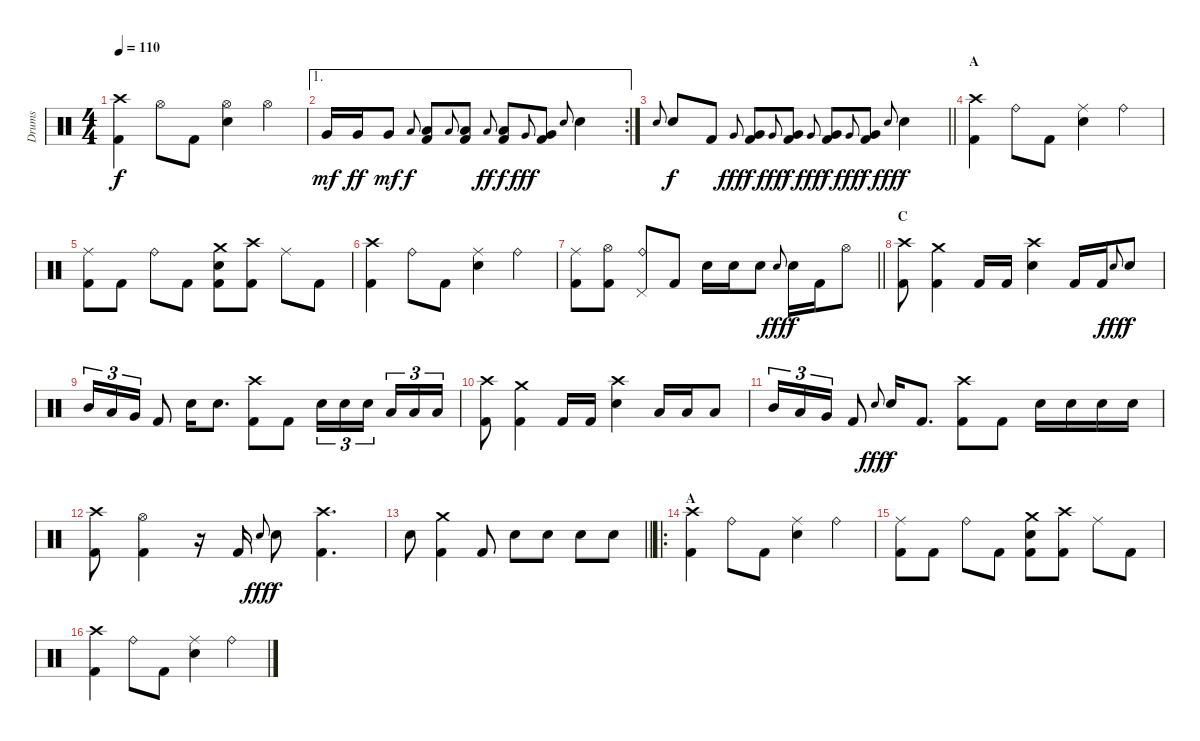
\track ("Drums" "Drums") {instrument percussion}
\staff {score}
\articulation defaults
\ts (4 4)
\tempo 110
\clef neutral
\ks c
("Kick (hit) 2" "Crash high (hit)").4{dy f} "Hi-Hat (open)".8 "Kick (hit) 2".8 ("Hi-Hat (open)" "Snare (hit) 2").4 "Hi-Hat (open)".4 |
\ae 1
\rc 2 "Very Low Tom (hit)".16{dy mf} "Very Low Tom (hit)".16{dy ff} "Very Low Tom (hit)".8{dy mf} "Low Tom (hit)".8{gr onbeat dy f}
("Kick (hit) 2" "Low Tom (hit)").8 "Low Tom (hit)".8{gr onbeat} ("Kick (hit) 2" "Low Tom (hit)").8 "Low Tom (hit)".8{gr onbeat dy ff} ("Kick (hit) 2" "Low Tom (hit)").8{dy f} "Very Low Tom (hit)".8{gr onbeat dy fff} ("Kick (hit) 2" "Very Low Tom (hit)").8 "Snare (hit) 2".8{gr onbeat} "Snare (hit) 2".4 |
\barLineRight lightlight "Snare (hit) 2".8{gr onbeat} "Snare (hit) 2".8{dy f} "Kick (hit) 2".8 "Very Low Tom (hit)".8{gr onbeat dy fff}
("Kick (hit) 2" "Very Low Tom (hit)").8{dy f} "Very Low Tom (hit)".8{gr onbeat dy fff} ("Very Low Tom (hit)" "Kick (hit) 2").8{dy f} "Very Low Tom (hit)".8{gr onbeat dy fff} ("Very Low Tom (hit)" "Kick (hit) 2").8{dy f} "Very Low Tom (hit)".8{gr onbeat dy fff} ("Very Low Tom (hit)" "Kick (hit) 2").8{dy f} "Snare (hit) 2".8{gr onbeat dy fff} "Snare (hit) 2".4{dy f} |
\section ("" "A")
("Kick (hit) 2" "Crash high (hit)").4 "Ride (bell)".8 "Kick (hit) 2".8 ("Ride (middle)" "Snare (hit) 2").4 "Ride (bell)".4 |
("Ride (middle)" "Kick (hit) 2").8 "Kick (hit) 2".8 "Ride (bell)".8 "Kick (hit) 2".8 ("Snare (hit) 2" "Crash medium (hit)" "Kick (hit) 2").8 ("Crash high (hit)" "Kick (hit) 2").8 "Ride (middle)".8 "Kick (hit) 2".8 |
("Kick (hit) 2" "Crash high (hit)").4 "Ride (bell)".8 "Kick (hit) 2".8 ("Ride (middle)" "Snare (hit) 2").4 "Ride (bell)".4 |
\barLineRight lightlight
("Ride (middle)" "Kick (hit) 2").8 ("Kick (hit) 2" "Hi-Hat (open)").8 ("Ride (bell)" "Pedal Hi-Hat (hit)").8 "Kick (hit) 2".8 "Snare (hit) 2".16 "Snare (hit) 2".16 "Snare (hit) 2".8 "Snare (hit) 2".8{gr onbeat dy fff} "Snare (hit) 2".16{dy f} "Kick (hit) 2".16 "Hi-Hat (open)".8 |
\section ("" "C")
("Kick (hit) 2" "Crash high (hit)").8 ("Crash medium (hit)" "Kick (hit) 2").4 "Kick (hit) 2".16 "Kick (hit) 2".16 ("Snare (hit) 2" "Crash high (hit)").4 "Kick (hit) 2".16 "Kick (hit) 2".16 "Snare (hit) 2".8{gr onbeat dy fff} "Snare (hit) 2".8{dy f} |
"Mid Tom (hit)".16{tu (3 2)} "Low Tom (hit)".16{tu (3 2)} "Very Low Tom (hit)".16{tu (3 2)} "Kick (hit) 2".8 "Snare (hit) 2".16 "Snare (hit) 2".8{d} ("Kick (hit) 2" "Crash high (hit)").8 "Kick (hit) 2".8 "Snare (hit) 2".16{tu (3 2)} "Snare (hit) 2".16{tu (3 2)} "Snare (hit) 2".16{tu (3 2) beam splitsecondary} "Low Tom (hit)".16{tu (3 2)} "Low Tom (hit)".16{tu (3 2)} "Low Tom (hit)".16{tu (3 2)} |
("Kick (hit) 2" "Crash high (hit)").8 ("Crash medium (hit)" "Kick (hit) 2").4 "Kick (hit) 2".16 "Kick (hit) 2".16 ("Snare (hit) 2" "Crash high (hit)").4 "Low Tom (hit)".16 "Low Tom (hit)".16 "Low Tom (hit)".8 |
"Mid Tom (hit)".16{tu (3 2)} "Low Tom (hit)".16{tu (3 2)} "Very Low Tom (hit)".16{tu (3 2)} "Kick (hit) 2".8 "Snare (hit) 2".8{gr onbeat dy fff} "Snare (hit) 2".16{dy f} "Kick (hit) 2".8{d} ("Kick (hit) 2" "Crash high (hit)").8 "Kick (hit) 2".8 "Snare (hit) 2".16 "Snare (hit) 2".16 "Snare (hit) 2".16 "Snare (hit) 2".16 |
("Kick (hit) 2" "Crash high (hit)").8 ("Hi-Hat (open)" "Kick (hit) 2").4 r.16 "Kick (hit) 2".16 "Snare (hit) 2".8{gr onbeat dy fff} "Snare (hit) 2".8{dy f} ("Kick (hit) 2" "Crash high (hit)").4{d} |
\barLineRight lightlight "Snare (hit) 2".8
("Crash medium (hit)" "Kick (hit) 2").4 "Kick (hit) 2".8 "Snare (hit) 2".8 "Snare (hit) 2".8 "Snare (hit) 2".8 "Snare (hit) 2".8 |
\ro
\section ("" "A")
("Kick (hit) 2" "Crash high (hit)").4 "Ride (bell)".8 "Kick (hit) 2".8 ("Ride (middle)" "Snare (hit) 2").4 "Ride (bell)".4 |
("Ride (middle)" "Kick (hit) 2").8 "Kick (hit) 2".8 "Ride (bell)".8 "Kick (hit) 2".8 ("Snare (hit) 2" "Crash medium (hit)" "Kick (hit) 2").8 ("Crash high (hit)" "Kick (hit) 2").8 "Ride (middle)".8 "Kick (hit) 2".8 |
("Kick (hit) 2" "Crash high (hit)").4 "Ride (bell)".8 "Kick (hit) 2".8 ("Ride (middle)" "Snare (hit) 2").4 "Ride (bell)".4
